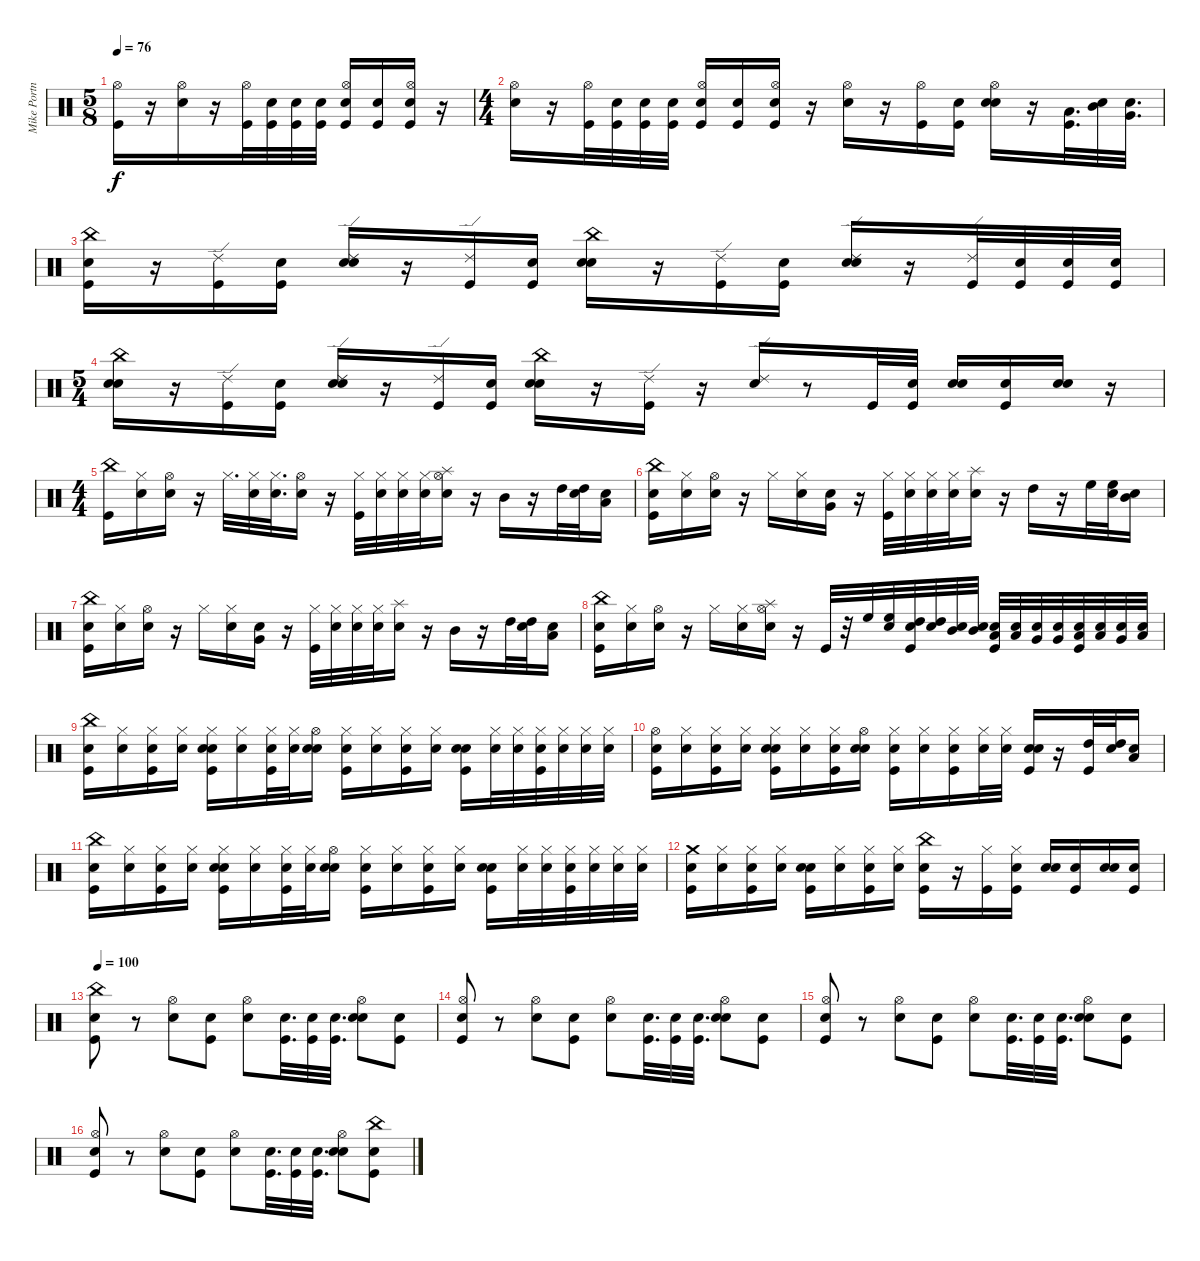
\track ("Mike Portnoy" "Mike Portn") {instrument percussion}
\staff {score}
\articulation defaults
\ts (5 8)
\tempo 76
\clef neutral
\ks c
("Kick (hit)" "Hi-Hat (open)").16{dy f} r.16 ("Snare (hit) 2" "Hi-Hat (open)").16 r.16 ("Kick (hit)" "Hi-Hat (open)").32 ("Snare (hit)" "Kick (hit)").32 ("Snare (hit)" "Kick (hit)").32 ("Snare (hit)" "Kick (hit)").32 ("Snare (hit)" "Kick (hit)" "Hi-Hat (open)").16 ("Snare (hit)" "Kick (hit)").16 ("Snare (hit)" "Kick (hit)" "Hi-Hat (open)").16 r.16 |
\ts (4 4)
("Snare (hit) 2" "Hi-Hat (open)").16 r.16 ("Kick (hit)" "Hi-Hat (open)").32 ("Snare (hit)" "Kick (hit)").32 ("Snare (hit)" "Kick (hit)").32 ("Snare (hit)" "Kick (hit)").32 ("Snare (hit)" "Kick (hit)" "Hi-Hat (open)").16 ("Snare (hit)" "Kick (hit)").16 ("Snare (hit)" "Kick (hit)" "Hi-Hat (open)").16 r.16 ("Snare (hit) 2" "Hi-Hat (open)").16 r.16 ("Kick (hit)" "Hi-Hat (open)").16 ("Snare (hit)" "Kick (hit)").16 ("Snare (hit)" "Snare (hit) 2" "Hi-Hat (open)").16 r.16 ("Kick (hit)" "Low Tom (hit)").32{d} ("Snare (hit)" "Mid Tom (hit)").32 ("Snare (hit)" "Very Low Tom (hit)").32{d} |
("Snare (hit)" "Kick (hit)" "China (hit)").16 r.16 ("Kick (hit)" "Ride (edge) 2").16 ("Snare (hit)" "Kick (hit)").16 ("Snare (hit)" "Snare (hit) 2" "Ride (edge) 2").16 r.16 ("Kick (hit)" "Ride (edge) 2").16 ("Snare (hit)" "Kick (hit)").16 ("Snare (hit)" "Snare (hit) 2" "China (hit)").16 r.16 ("Kick (hit)" "Ride (edge) 2").16 ("Snare (hit)" "Kick (hit)").16 ("Snare (hit)" "Snare (hit) 2" "Ride (edge) 2").16 r.16 ("Kick (hit)" "Ride (edge) 2").32 ("Snare (hit)" "Kick (hit)").32 ("Snare (hit)" "Kick (hit)").32 ("Snare (hit)" "Kick (hit)").32 |
\ts (5 4)
("Snare (hit)" "Snare (hit) 2" "China (hit)").16 r.16 ("Kick (hit)" "Ride (edge) 2").16 ("Snare (hit)" "Kick (hit)").16 ("Snare (hit)" "Snare (hit) 2" "Ride (edge) 2").16 r.16 ("Kick (hit)" "Ride (edge) 2").16 ("Snare (hit)" "Kick (hit)").16 ("Snare (hit)" "Snare (hit) 2" "China (hit)").16 r.16 ("Kick (hit)" "Ride (edge) 2").16 r.16 ("Snare (hit) 2" "Ride (edge) 2").16 r.8 "Kick (hit)".32 ("Snare (hit)" "Kick (hit)").32 ("Snare (hit)" "Snare (hit) 2").16 ("Snare (hit)" "Kick (hit)").16 ("Snare (hit)" "Snare (hit) 2").16 r.16 |
\ts (4 4)
("Kick (hit)" "China (hit)").16 ("Snare (hit)" "Hi-Hat (closed)").16 ("Snare (hit)" "Hi-Hat (open)").16 r.16 "Hi-Hat (closed)".32{d} ("Snare (hit)" "Hi-Hat (closed)").32 ("Snare (hit)" "Hi-Hat (closed)").32{d} ("Snare (hit)" "Hi-Hat (open)").16 r.16 ("Kick (hit)" "Hi-Hat (closed)").32 ("Snare (hit)" "Hi-Hat (closed)").32 ("Snare (hit)" "Hi-Hat (closed)").32 ("Snare (hit)" "Hi-Hat (closed)").32 ("Snare (hit)" "Hi-Hat (open)" "Splash (hit)").16 r.16 "Mid Tom (hit)".16 r.16 "High Tom (hit)".32 ("Snare (hit)" "High Tom (hit)").32 ("Snare (hit)" "Low Tom (hit)").16 |
("Snare (hit)" "Kick (hit)" "China (hit)").16 ("Snare (hit)" "Hi-Hat (closed)").16 ("Snare (hit)" "Hi-Hat (open)").16 r.16 "Hi-Hat (closed)".16 ("Snare (hit)" "Hi-Hat (closed)").16 ("Snare (hit)" "Very Low Tom (hit)").16 r.16 ("Kick (hit)" "Hi-Hat (closed)").32 ("Snare (hit)" "Hi-Hat (closed)").32 ("Snare (hit)" "Hi-Hat (closed)").32 ("Snare (hit)" "Hi-Hat (closed)").32 ("Snare (hit)" "Splash (hit)").16 r.16 "High Tom (hit)".16 r.16 "High Floor Tom (hit)".32 ("Snare (hit)" "High Floor Tom (hit)").32 ("Snare (hit)" "Mid Tom (hit)").16 |
("Snare (hit)" "Kick (hit)" "China (hit)").16 ("Snare (hit)" "Hi-Hat (closed)").16 ("Snare (hit)" "Hi-Hat (open)").16 r.16 "Hi-Hat (closed)".16 ("Snare (hit)" "Hi-Hat (closed)").16 ("Snare (hit)" "Very Low Tom (hit)").16 r.16 ("Kick (hit)" "Hi-Hat (closed)").32 ("Snare (hit)" "Hi-Hat (closed)").32 ("Snare (hit)" "Hi-Hat (closed)").32 ("Snare (hit)" "Hi-Hat (closed)").32 ("Snare (hit)" "Splash (hit)").16 r.16 "Mid Tom (hit)".16 r.16 "High Tom (hit)".32 ("Snare (hit)" "High Tom (hit)").32 ("Snare (hit)" "Low Tom (hit)").16 |
("Snare (hit)" "Kick (hit)" "China (hit)").16 ("Snare (hit)" "Hi-Hat (closed)").16 ("Snare (hit)" "Hi-Hat (open)").16 r.16 "Hi-Hat (closed)".16 ("Snare (hit)" "Hi-Hat (closed)").16 ("Snare (hit)" "Hi-Hat (open)" "Splash (hit)").16 r.16 "Kick (hit)".32 r.32 "High Floor Tom (hit)".32 ("Snare (hit)" "High Floor Tom (hit)").32 ("Snare (hit)" "Kick (hit)" "High Tom (hit)").32 ("Snare (hit)" "High Tom (hit)").32 ("Snare (hit)" "Mid Tom (hit)").32 ("Snare (hit)" "Mid Tom (hit)").32 ("Snare (hit)" "Kick (hit)" "Low Tom (hit)").32 ("Snare (hit)" "Low Tom (hit)").32 ("Snare (hit)" "Very Low Tom (hit)").32 ("Snare (hit)" "Very Low Tom (hit)").32 ("Snare (hit)" "Kick (hit)" "Low Floor Tom (hit)").32 ("Snare (hit)" "Low Floor Tom (hit)").32 ("Snare (hit)" "Very Low Tom (hit)").32 ("Snare (hit)" "Low Floor Tom (hit)").32 |
("Snare (hit)" "Kick (hit)" "China (hit)").16 ("Snare (hit)" "Hi-Hat (closed)").16 ("Snare (hit)" "Kick (hit)" "Hi-Hat (closed)").16 ("Snare (hit)" "Hi-Hat (closed)").16 ("Snare (hit)" "Kick (hit)" "Snare (hit) 2" "Hi-Hat (closed)").16 ("Snare (hit)" "Hi-Hat (closed)").16 ("Snare (hit)" "Kick (hit)" "Hi-Hat (closed)").32 ("Snare (hit)" "Hi-Hat (closed)").32 ("Snare (hit)" "Snare (hit) 2" "Hi-Hat (open)").16 ("Snare (hit)" "Kick (hit)" "Hi-Hat (closed)").16 ("Snare (hit)" "Hi-Hat (closed)").16 ("Snare (hit)" "Kick (hit)" "Hi-Hat (closed)").16 ("Snare (hit)" "Hi-Hat (closed)").16 ("Snare (hit)" "Kick (hit)" "Snare (hit) 2").16 ("Snare (hit)" "Hi-Hat (closed)").32 ("Snare (hit)" "Hi-Hat (closed)").32 ("Snare (hit)" "Kick (hit)" "Hi-Hat (closed)").32 ("Snare (hit)" "Hi-Hat (closed)").32 ("Snare (hit)" "Hi-Hat (closed)").32 ("Snare (hit)" "Hi-Hat (closed)").32 |
("Snare (hit)" "Kick (hit)" "Hi-Hat (open)").16 ("Snare (hit)" "Hi-Hat (closed)").16 ("Snare (hit)" "Kick (hit)" "Hi-Hat (closed)").16 ("Snare (hit)" "Hi-Hat (closed)").16 ("Snare (hit)" "Kick (hit)" "Snare (hit) 2" "Hi-Hat (closed)").16 ("Snare (hit)" "Hi-Hat (closed)").16 ("Snare (hit)" "Kick (hit)" "Hi-Hat (closed)").16 ("Snare (hit)" "Snare (hit) 2" "Hi-Hat (open)").16 ("Snare (hit)" "Kick (hit)" "Hi-Hat (closed)").16 ("Snare (hit)" "Hi-Hat (closed)").16 ("Snare (hit)" "Kick (hit)" "Hi-Hat (closed)").16 ("Snare (hit)" "Hi-Hat (closed)").32 ("Snare (hit)" "Hi-Hat (closed)").32 ("Snare (hit)" "Kick (hit)" "Snare (hit) 2").16 r.16 ("Kick (hit)" "High Tom (hit)").32 ("Snare (hit)" "High Tom (hit)").32 ("Snare (hit)" "Low Tom (hit)").16 |
("Snare (hit)" "Kick (hit)" "China (hit)").16 ("Snare (hit)" "Hi-Hat (closed)").16 ("Snare (hit)" "Kick (hit)" "Hi-Hat (closed)").16 ("Snare (hit)" "Hi-Hat (closed)").16 ("Snare (hit)" "Kick (hit)" "Snare (hit) 2" "Hi-Hat (closed)").16 ("Snare (hit)" "Hi-Hat (closed)").16 ("Snare (hit)" "Kick (hit)" "Hi-Hat (closed)").32 ("Snare (hit)" "Hi-Hat (closed)").32 ("Snare (hit)" "Snare (hit) 2" "Hi-Hat (open)").16 ("Snare (hit)" "Kick (hit)" "Hi-Hat (closed)").16 ("Snare (hit)" "Hi-Hat (closed)").16 ("Snare (hit)" "Kick (hit)" "Hi-Hat (closed)").16 ("Snare (hit)" "Hi-Hat (closed)").16 ("Snare (hit)" "Kick (hit)" "Snare (hit) 2").16 ("Snare (hit)" "Hi-Hat (closed)").32 ("Snare (hit)" "Hi-Hat (closed)").32 ("Snare (hit)" "Kick (hit)" "Hi-Hat (closed)").32 ("Snare (hit)" "Hi-Hat (closed)").32 ("Snare (hit)" "Hi-Hat (closed)").32 ("Snare (hit)" "Hi-Hat (closed)").32 |
("Snare (hit)" "Kick (hit)" "Crash medium (hit)").16 ("Snare (hit)" "Hi-Hat (closed)").16 ("Snare (hit)" "Kick (hit)" "Hi-Hat (closed)").16 ("Snare (hit)" "Hi-Hat (closed)").16 ("Snare (hit)" "Kick (hit)" "Snare (hit) 2").16 ("Snare (hit)" "Hi-Hat (closed)").16 ("Snare (hit)" "Kick (hit)" "Hi-Hat (closed)").16 ("Snare (hit)" "Hi-Hat (closed)").16 ("Snare (hit)" "Kick (hit)" "China (hit)").16 r.16 ("Kick (hit)" "Hi-Hat (closed)").16 ("Snare (hit)" "Kick (hit)" "Hi-Hat (closed)").16 ("Snare (hit)" "Snare (hit) 2").16 ("Snare (hit)" "Kick (hit)").16 ("Snare (hit)" "Snare (hit) 2").16 ("Snare (hit)" "Kick (hit)").16 |
\tempo 100
("Snare (hit)" "Kick (hit)" "China (hit)").8 r.8 ("Snare (hit) 2" "Hi-Hat (open)").8 ("Snare (hit)" "Kick (hit)").8 ("Snare (hit)" "Hi-Hat (open)").8 ("Snare (hit)" "Kick (hit)").32{d} ("Snare (hit)" "Kick (hit)").32 ("Snare (hit)" "Kick (hit)").32{d} ("Snare (hit)" "Snare (hit) 2" "Hi-Hat (open)").8 ("Snare (hit)" "Kick (hit)").8 |
("Snare (hit)" "Kick (hit)" "Hi-Hat (open)").8 r.8 ("Snare (hit) 2" "Hi-Hat (open)").8 ("Snare (hit)" "Kick (hit)").8 ("Snare (hit)" "Hi-Hat (open)").8 ("Snare (hit)" "Kick (hit)").32{d} ("Snare (hit)" "Kick (hit)").32 ("Snare (hit)" "Kick (hit)").32{d} ("Snare (hit)" "Snare (hit) 2" "Hi-Hat (open)").8 ("Snare (hit)" "Kick (hit)").8 |
("Snare (hit)" "Kick (hit)" "Hi-Hat (open)").8 r.8 ("Snare (hit) 2" "Hi-Hat (open)").8 ("Snare (hit)" "Kick (hit)").8 ("Snare (hit)" "Hi-Hat (open)").8 ("Snare (hit)" "Kick (hit)").32{d} ("Snare (hit)" "Kick (hit)").32 ("Snare (hit)" "Kick (hit)").32{d} ("Snare (hit)" "Snare (hit) 2" "Hi-Hat (open)").8 ("Snare (hit)" "Kick (hit)").8 |
("Snare (hit)" "Kick (hit)" "Hi-Hat (open)").8 r.8 ("Snare (hit) 2" "Hi-Hat (open)").8 ("Snare (hit)" "Kick (hit)").8 ("Snare (hit)" "Hi-Hat (open)").8 ("Snare (hit)" "Kick (hit)").32{d} ("Snare (hit)" "Kick (hit)").32 ("Snare (hit)" "Kick (hit)").32{d} ("Snare (hit)" "Snare (hit) 2" "Hi-Hat (open)").8 ("Snare (hit)" "Kick (hit)" "China (hit)").8
